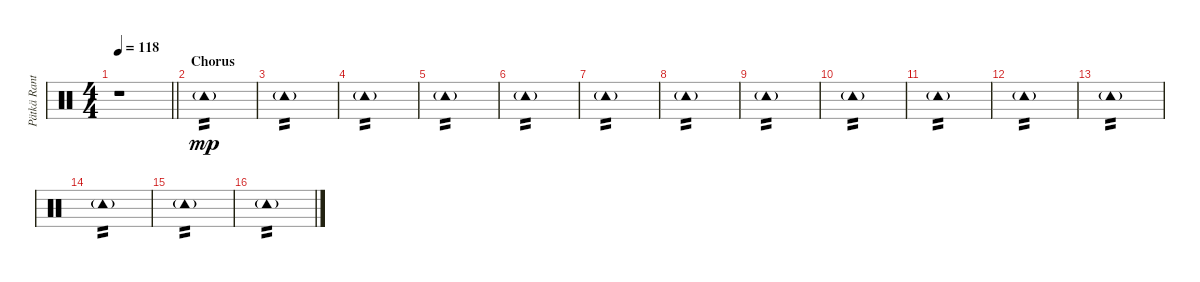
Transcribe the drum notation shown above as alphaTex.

\track ("Pätkä Rantala (Drums)" "Pätkä Rant") {instrument percussion}
\staff {score}
\articulation defaults
\ts (4 4)
\tempo 118
\clef neutral
\barLineRight lightlight
\ks c
r.1{dy mp} |
\section ("" "Chorus")
"Tambourine (hit)"{g}.1{tp 2} |
"Tambourine (hit)"{g}.1{tp 2} |
"Tambourine (hit)"{g}.1{tp 2} |
"Tambourine (hit)"{g}.1{tp 2} |
"Tambourine (hit)"{g}.1{tp 2} |
"Tambourine (hit)"{g}.1{tp 2} |
"Tambourine (hit)"{g}.1{tp 2} |
"Tambourine (hit)"{g}.1{tp 2} |
"Tambourine (hit)"{g}.1{tp 2} |
"Tambourine (hit)"{g}.1{tp 2} |
"Tambourine (hit)"{g}.1{tp 2} |
"Tambourine (hit)"{g}.1{tp 2} |
"Tambourine (hit)"{g}.1{tp 2} |
"Tambourine (hit)"{g}.1{tp 2} |
"Tambourine (hit)"{g}.1{tp 2}
